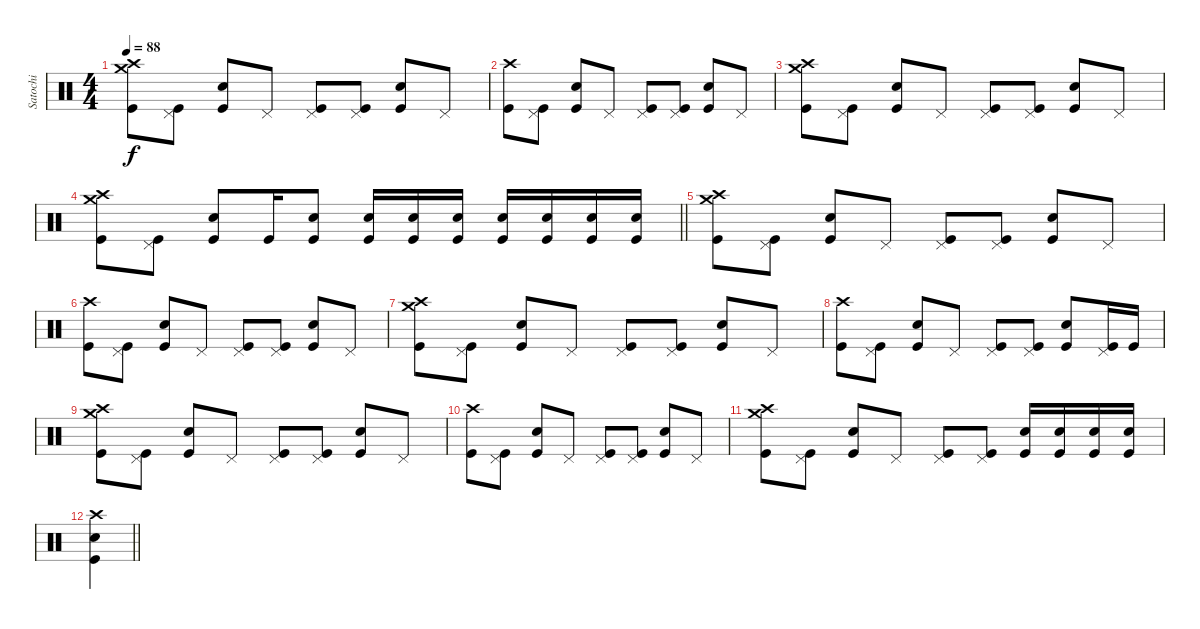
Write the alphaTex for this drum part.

\track ("Satochi" "Satochi") {instrument percussion}
\staff {score}
\articulation defaults
\ts (4 4)
\tempo 88
\clef neutral
\ks c
("Crash medium (hit)" "Crash high (hit)" "Kick (hit)").8{dy f} ("Pedal Hi-Hat (hit)" "Kick (hit)").8 ("Snare (hit) 2" "Kick (hit)").8 "Pedal Hi-Hat (hit)".8 ("Pedal Hi-Hat (hit)" "Kick (hit)").8 ("Pedal Hi-Hat (hit)" "Kick (hit)").8 ("Snare (hit) 2" "Kick (hit)").8 "Pedal Hi-Hat (hit)".8 |
("Crash high (hit)" "Kick (hit)").8 ("Pedal Hi-Hat (hit)" "Kick (hit)").8 ("Snare (hit) 2" "Kick (hit)").8 "Pedal Hi-Hat (hit)".8 ("Pedal Hi-Hat (hit)" "Kick (hit)").8 ("Pedal Hi-Hat (hit)" "Kick (hit)").8 ("Snare (hit) 2" "Kick (hit)").8 "Pedal Hi-Hat (hit)".8 |
("Crash medium (hit)" "Crash high (hit)" "Kick (hit)").8 ("Pedal Hi-Hat (hit)" "Kick (hit)").8 ("Snare (hit) 2" "Kick (hit)").8 "Pedal Hi-Hat (hit)".8 ("Pedal Hi-Hat (hit)" "Kick (hit)").8 ("Pedal Hi-Hat (hit)" "Kick (hit)").8 ("Snare (hit) 2" "Kick (hit)").8 "Pedal Hi-Hat (hit)".8 |
\barLineRight lightlight
("Crash medium (hit)" "Crash high (hit)" "Kick (hit)").8 ("Pedal Hi-Hat (hit)" "Kick (hit)").8 ("Snare (hit) 2" "Kick (hit)").8 "Kick (hit)".16 ("Snare (hit) 2" "Kick (hit)").8 ("Snare (hit) 2" "Kick (hit)").16 ("Snare (hit) 2" "Kick (hit)").16 ("Snare (hit) 2" "Kick (hit)").16 ("Snare (hit) 2" "Kick (hit)").16 ("Snare (hit) 2" "Kick (hit)").16 ("Snare (hit) 2" "Kick (hit)").16 ("Snare (hit) 2" "Kick (hit)").16 |
("Crash medium (hit)" "Crash high (hit)" "Kick (hit)").8 ("Pedal Hi-Hat (hit)" "Kick (hit)").8 ("Snare (hit) 2" "Kick (hit)").8 "Pedal Hi-Hat (hit)".8 ("Pedal Hi-Hat (hit)" "Kick (hit)").8 ("Pedal Hi-Hat (hit)" "Kick (hit)").8 ("Snare (hit) 2" "Kick (hit)").8 "Pedal Hi-Hat (hit)".8 |
("Crash high (hit)" "Kick (hit)").8 ("Pedal Hi-Hat (hit)" "Kick (hit)").8 ("Snare (hit) 2" "Kick (hit)").8 "Pedal Hi-Hat (hit)".8 ("Pedal Hi-Hat (hit)" "Kick (hit)").8 ("Pedal Hi-Hat (hit)" "Kick (hit)").8 ("Snare (hit) 2" "Kick (hit)").8 "Pedal Hi-Hat (hit)".8 |
("Crash medium (hit)" "Crash high (hit)" "Kick (hit)").8 ("Pedal Hi-Hat (hit)" "Kick (hit)").8 ("Snare (hit) 2" "Kick (hit)").8 "Pedal Hi-Hat (hit)".8 ("Pedal Hi-Hat (hit)" "Kick (hit)").8 ("Pedal Hi-Hat (hit)" "Kick (hit)").8 ("Snare (hit) 2" "Kick (hit)").8 "Pedal Hi-Hat (hit)".8 |
("Crash high (hit)" "Kick (hit)").8 ("Pedal Hi-Hat (hit)" "Kick (hit)").8 ("Snare (hit) 2" "Kick (hit)").8 "Pedal Hi-Hat (hit)".8 ("Pedal Hi-Hat (hit)" "Kick (hit)").8 ("Pedal Hi-Hat (hit)" "Kick (hit)").8 ("Snare (hit) 2" "Kick (hit)").8 ("Pedal Hi-Hat (hit)" "Kick (hit)").16 "Kick (hit)".16 |
("Crash medium (hit)" "Crash high (hit)" "Kick (hit)").8 ("Pedal Hi-Hat (hit)" "Kick (hit)").8 ("Snare (hit) 2" "Kick (hit)").8 "Pedal Hi-Hat (hit)".8 ("Pedal Hi-Hat (hit)" "Kick (hit)").8 ("Pedal Hi-Hat (hit)" "Kick (hit)").8 ("Snare (hit) 2" "Kick (hit)").8 "Pedal Hi-Hat (hit)".8 |
("Crash high (hit)" "Kick (hit)").8 ("Pedal Hi-Hat (hit)" "Kick (hit)").8 ("Snare (hit) 2" "Kick (hit)").8 "Pedal Hi-Hat (hit)".8 ("Pedal Hi-Hat (hit)" "Kick (hit)").8 ("Pedal Hi-Hat (hit)" "Kick (hit)").8 ("Snare (hit) 2" "Kick (hit)").8 "Pedal Hi-Hat (hit)".8 |
("Crash medium (hit)" "Crash high (hit)" "Kick (hit)").8 ("Pedal Hi-Hat (hit)" "Kick (hit)").8 ("Snare (hit) 2" "Kick (hit)").8 "Pedal Hi-Hat (hit)".8 ("Pedal Hi-Hat (hit)" "Kick (hit)").8 ("Pedal Hi-Hat (hit)" "Kick (hit)").8 ("Snare (hit) 2" "Kick (hit)").16 ("Snare (hit) 2" "Kick (hit)").16 ("Snare (hit) 2" "Kick (hit)").16 ("Snare (hit) 2" "Kick (hit)").16 |
\barLineRight lightlight
("Crash high (hit)" "Snare (hit) 2" "Kick (hit)").4
